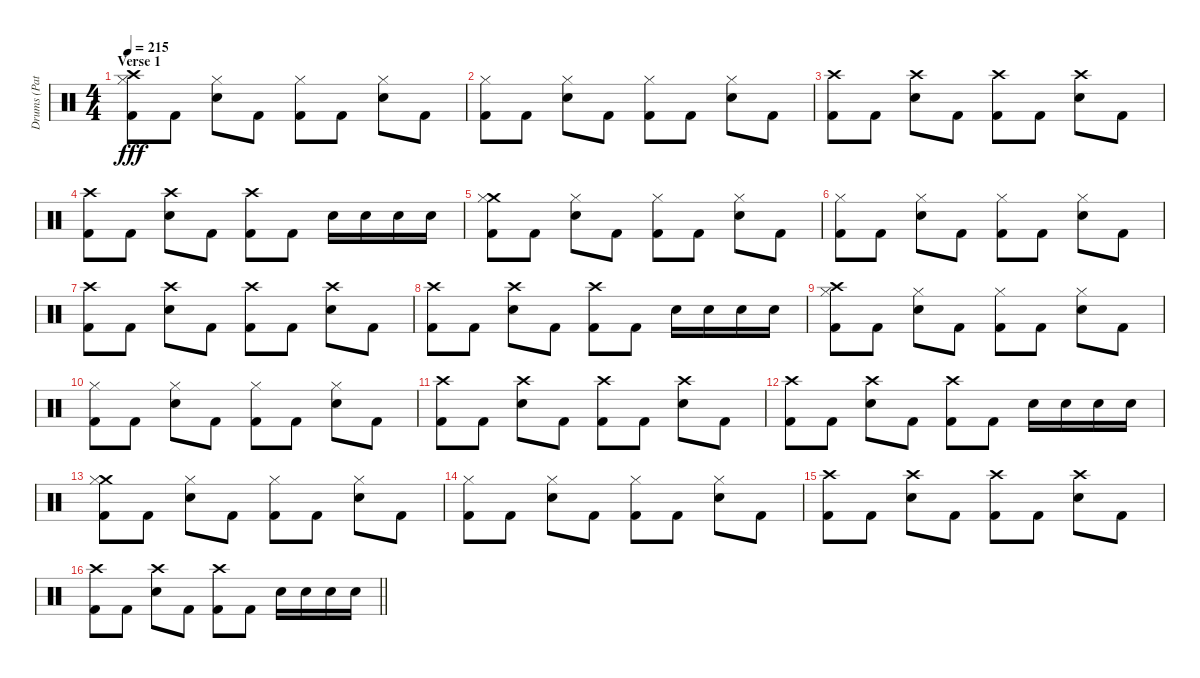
\track ("Drums (Pat Thetic)" "Drums (Pat") {instrument percussion}
\staff {score}
\articulation defaults
\ts (4 4)
\section ("" "Verse 1")
\tempo 215
\clef neutral
\ks c
("Crash high (hit)" "Hi-Hat (closed)" "Kick (hit) 2").8{dy fff} "Kick (hit) 2".8 ("Hi-Hat (closed)" "Snare (hit) 2").8 "Kick (hit) 2".8 ("Hi-Hat (closed)" "Kick (hit) 2").8 "Kick (hit) 2".8 ("Hi-Hat (closed)" "Snare (hit) 2").8 "Kick (hit) 2".8 |
("Hi-Hat (closed)" "Kick (hit) 2").8 "Kick (hit) 2".8 ("Hi-Hat (closed)" "Snare (hit) 2").8 "Kick (hit) 2".8 ("Hi-Hat (closed)" "Kick (hit) 2").8 "Kick (hit) 2".8 ("Hi-Hat (closed)" "Snare (hit) 2").8 "Kick (hit) 2".8 |
("Crash high (hit)" "Kick (hit) 2").8 "Kick (hit) 2".8 ("Crash high (hit)" "Snare (hit) 2").8 "Kick (hit) 2".8 ("Crash high (hit)" "Kick (hit) 2").8 "Kick (hit) 2".8 ("Crash high (hit)" "Snare (hit) 2").8 "Kick (hit) 2".8 |
("Crash high (hit)" "Kick (hit) 2").8 "Kick (hit) 2".8 ("Crash high (hit)" "Snare (hit) 2").8 "Kick (hit) 2".8 ("Crash high (hit)" "Kick (hit) 2").8 "Kick (hit) 2".8 "Snare (hit) 2".16 "Snare (hit) 2".16 "Snare (hit) 2".16 "Snare (hit) 2".16 |
("Crash medium (hit)" "Hi-Hat (closed)" "Kick (hit) 2").8 "Kick (hit) 2".8 ("Hi-Hat (closed)" "Snare (hit) 2").8 "Kick (hit) 2".8 ("Hi-Hat (closed)" "Kick (hit) 2").8 "Kick (hit) 2".8 ("Hi-Hat (closed)" "Snare (hit) 2").8 "Kick (hit) 2".8 |
("Hi-Hat (closed)" "Kick (hit) 2").8 "Kick (hit) 2".8 ("Hi-Hat (closed)" "Snare (hit) 2").8 "Kick (hit) 2".8 ("Hi-Hat (closed)" "Kick (hit) 2").8 "Kick (hit) 2".8 ("Hi-Hat (closed)" "Snare (hit) 2").8 "Kick (hit) 2".8 |
("Crash high (hit)" "Kick (hit) 2").8 "Kick (hit) 2".8 ("Crash high (hit)" "Snare (hit) 2").8 "Kick (hit) 2".8 ("Crash high (hit)" "Kick (hit) 2").8 "Kick (hit) 2".8 ("Crash high (hit)" "Snare (hit) 2").8 "Kick (hit) 2".8 |
("Crash high (hit)" "Kick (hit) 2").8 "Kick (hit) 2".8 ("Crash high (hit)" "Snare (hit) 2").8 "Kick (hit) 2".8 ("Crash high (hit)" "Kick (hit) 2").8 "Kick (hit) 2".8 "Snare (hit) 2".16 "Snare (hit) 2".16 "Snare (hit) 2".16 "Snare (hit) 2".16 |
("Crash high (hit)" "Hi-Hat (closed)" "Kick (hit) 2").8 "Kick (hit) 2".8 ("Hi-Hat (closed)" "Snare (hit) 2").8 "Kick (hit) 2".8 ("Hi-Hat (closed)" "Kick (hit) 2").8 "Kick (hit) 2".8 ("Hi-Hat (closed)" "Snare (hit) 2").8 "Kick (hit) 2".8 |
("Hi-Hat (closed)" "Kick (hit) 2").8 "Kick (hit) 2".8 ("Hi-Hat (closed)" "Snare (hit) 2").8 "Kick (hit) 2".8 ("Hi-Hat (closed)" "Kick (hit) 2").8 "Kick (hit) 2".8 ("Hi-Hat (closed)" "Snare (hit) 2").8 "Kick (hit) 2".8 |
("Crash high (hit)" "Kick (hit) 2").8 "Kick (hit) 2".8 ("Crash high (hit)" "Snare (hit) 2").8 "Kick (hit) 2".8 ("Crash high (hit)" "Kick (hit) 2").8 "Kick (hit) 2".8 ("Crash high (hit)" "Snare (hit) 2").8 "Kick (hit) 2".8 |
("Crash high (hit)" "Kick (hit) 2").8 "Kick (hit) 2".8 ("Crash high (hit)" "Snare (hit) 2").8 "Kick (hit) 2".8 ("Crash high (hit)" "Kick (hit) 2").8 "Kick (hit) 2".8 "Snare (hit) 2".16 "Snare (hit) 2".16 "Snare (hit) 2".16 "Snare (hit) 2".16 |
("Crash medium (hit)" "Hi-Hat (closed)" "Kick (hit) 2").8 "Kick (hit) 2".8 ("Hi-Hat (closed)" "Snare (hit) 2").8 "Kick (hit) 2".8 ("Hi-Hat (closed)" "Kick (hit) 2").8 "Kick (hit) 2".8 ("Hi-Hat (closed)" "Snare (hit) 2").8 "Kick (hit) 2".8 |
("Hi-Hat (closed)" "Kick (hit) 2").8 "Kick (hit) 2".8 ("Hi-Hat (closed)" "Snare (hit) 2").8 "Kick (hit) 2".8 ("Hi-Hat (closed)" "Kick (hit) 2").8 "Kick (hit) 2".8 ("Hi-Hat (closed)" "Snare (hit) 2").8 "Kick (hit) 2".8 |
("Crash high (hit)" "Kick (hit) 2").8 "Kick (hit) 2".8 ("Crash high (hit)" "Snare (hit) 2").8 "Kick (hit) 2".8 ("Crash high (hit)" "Kick (hit) 2").8 "Kick (hit) 2".8 ("Crash high (hit)" "Snare (hit) 2").8 "Kick (hit) 2".8 |
\barLineRight lightlight
("Crash high (hit)" "Kick (hit) 2").8 "Kick (hit) 2".8 ("Crash high (hit)" "Snare (hit) 2").8 "Kick (hit) 2".8 ("Crash high (hit)" "Kick (hit) 2").8 "Kick (hit) 2".8 "Snare (hit) 2".16 "Snare (hit) 2".16 "Snare (hit) 2".16 "Snare (hit) 2".16
